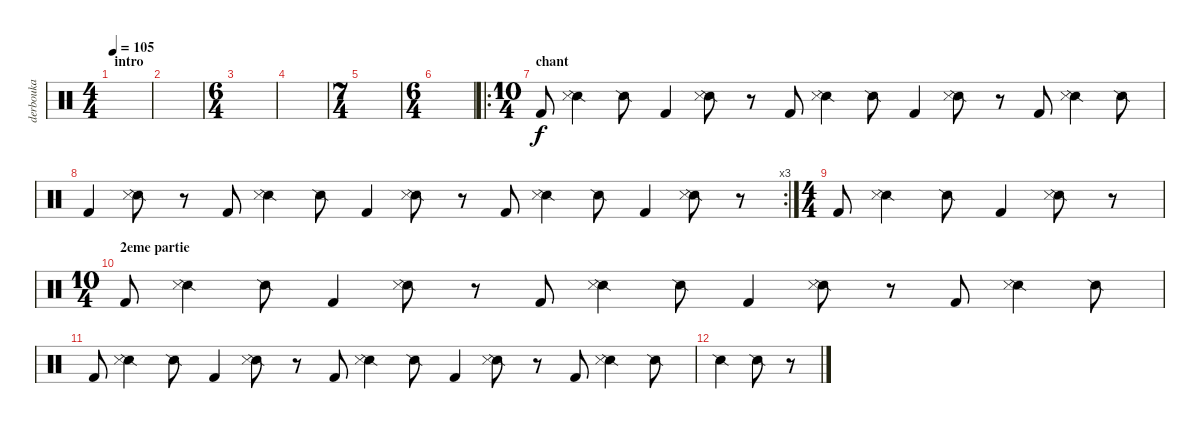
\track ("derbouka" "derbouka") {instrument percussion}
\staff {score}
\articulation defaults
\ts (4 4)
\section ("" "intro")
\tempo 105
\clef neutral
\ks c
|
|
\ts (6 4)
|
|
\ts (7 4)
|
\ts (6 4)
|
\ro
\ts (10 4)
\section ("" "chant")
"Kick (hit) 2".8 ("Snare (side stick) 2" "Metronome (hit)").4 "Snare (side stick) 2".8 "Kick (hit) 2".4 ("Snare (side stick) 2" "Metronome (hit)").8 r.8 "Kick (hit) 2".8 ("Snare (side stick) 2" "Metronome (hit)").4 "Snare (side stick) 2".8 "Kick (hit) 2".4 ("Snare (side stick) 2" "Metronome (hit)").8 r.8 "Kick (hit) 2".8 ("Snare (side stick) 2" "Metronome (hit)").4 "Snare (side stick) 2".8 |
\rc 3 "Kick (hit) 2".4
("Snare (side stick) 2" "Metronome (hit)").8 r.8 "Kick (hit) 2".8 ("Snare (side stick) 2" "Metronome (hit)").4 "Snare (side stick) 2".8 "Kick (hit) 2".4 ("Snare (side stick) 2" "Metronome (hit)").8 r.8 "Kick (hit) 2".8 ("Snare (side stick) 2" "Metronome (hit)").4 "Snare (side stick) 2".8 "Kick (hit) 2".4 ("Snare (side stick) 2" "Metronome (hit)").8 r.8 |
\ts (4 4)
"Kick (hit) 2".8 ("Snare (side stick) 2" "Metronome (hit)").4 "Snare (side stick) 2".8 "Kick (hit) 2".4 ("Snare (side stick) 2" "Metronome (hit)").8 r.8 |
\ts (10 4)
\section ("" "2eme partie")
"Kick (hit) 2".8 ("Snare (side stick) 2" "Metronome (hit)").4 "Snare (side stick) 2".8 "Kick (hit) 2".4 ("Snare (side stick) 2" "Metronome (hit)").8 r.8 "Kick (hit) 2".8 ("Snare (side stick) 2" "Metronome (hit)").4 "Snare (side stick) 2".8 "Kick (hit) 2".4 ("Snare (side stick) 2" "Metronome (hit)").8 r.8 "Kick (hit) 2".8 ("Snare (side stick) 2" "Metronome (hit)").4 "Snare (side stick) 2".8 |
"Kick (hit) 2".8 ("Snare (side stick) 2" "Metronome (hit)").4 "Snare (side stick) 2".8 "Kick (hit) 2".4 ("Snare (side stick) 2" "Metronome (hit)").8 r.8 "Kick (hit) 2".8 ("Snare (side stick) 2" "Metronome (hit)").4 "Snare (side stick) 2".8 "Kick (hit) 2".4 ("Snare (side stick) 2" "Metronome (hit)").8 r.8 "Kick (hit) 2".8 ("Snare (side stick) 2" "Metronome (hit)").4 "Snare (side stick) 2".8 |
"Snare (side stick) 2".4 "Snare (side stick) 2".8 r.8
